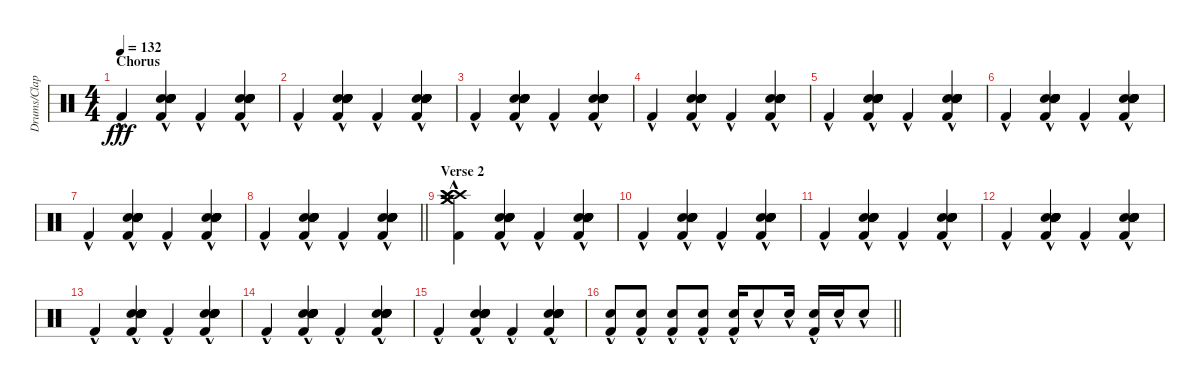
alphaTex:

\track ("Drums/Claps" "Drums/Clap") {instrument percussion}
\staff {score}
\articulation defaults
\ts (4 4)
\section ("" "Chorus")
\tempo 132
\clef neutral
\ks c "Kick (hit) 2"{hac}.4{dy fff}
("Hand Clap (hit)"{hac} "Hand Clap (hit)"{hac} "Hand Clap (hit)"{hac} "Snare (hit) 2"{hac} "Hand Clap (hit)"{hac} "Kick (hit) 2"{hac}).4 "Kick (hit) 2"{hac}.4 ("Hand Clap (hit)"{hac} "Hand Clap (hit)"{hac} "Hand Clap (hit)"{hac} "Snare (hit) 2"{hac} "Hand Clap (hit)"{hac} "Kick (hit) 2"{hac}).4 |
"Kick (hit) 2"{hac}.4 ("Hand Clap (hit)"{hac} "Hand Clap (hit)"{hac} "Hand Clap (hit)"{hac} "Snare (hit) 2"{hac} "Hand Clap (hit)"{hac} "Kick (hit) 2"{hac}).4 "Kick (hit) 2"{hac}.4 ("Hand Clap (hit)"{hac} "Hand Clap (hit)"{hac} "Hand Clap (hit)"{hac} "Snare (hit) 2"{hac} "Hand Clap (hit)"{hac} "Kick (hit) 2"{hac}).4 |
"Kick (hit) 2"{hac}.4 ("Hand Clap (hit)"{hac} "Hand Clap (hit)"{hac} "Hand Clap (hit)"{hac} "Snare (hit) 2"{hac} "Hand Clap (hit)"{hac} "Kick (hit) 2"{hac}).4 "Kick (hit) 2"{hac}.4 ("Hand Clap (hit)"{hac} "Hand Clap (hit)"{hac} "Hand Clap (hit)"{hac} "Snare (hit) 2"{hac} "Hand Clap (hit)"{hac} "Kick (hit) 2"{hac}).4 |
"Kick (hit) 2"{hac}.4 ("Hand Clap (hit)"{hac} "Hand Clap (hit)"{hac} "Hand Clap (hit)"{hac} "Snare (hit) 2"{hac} "Hand Clap (hit)"{hac} "Kick (hit) 2"{hac}).4 "Kick (hit) 2"{hac}.4 ("Hand Clap (hit)"{hac} "Hand Clap (hit)"{hac} "Hand Clap (hit)"{hac} "Snare (hit) 2"{hac} "Hand Clap (hit)"{hac} "Kick (hit) 2"{hac}).4 |
"Kick (hit) 2"{hac}.4 ("Hand Clap (hit)"{hac} "Hand Clap (hit)"{hac} "Hand Clap (hit)"{hac} "Snare (hit) 2"{hac} "Hand Clap (hit)"{hac} "Kick (hit) 2"{hac}).4 "Kick (hit) 2"{hac}.4 ("Hand Clap (hit)"{hac} "Hand Clap (hit)"{hac} "Hand Clap (hit)"{hac} "Snare (hit) 2"{hac} "Hand Clap (hit)"{hac} "Kick (hit) 2"{hac}).4 |
"Kick (hit) 2"{hac}.4 ("Hand Clap (hit)"{hac} "Hand Clap (hit)"{hac} "Hand Clap (hit)"{hac} "Snare (hit) 2"{hac} "Hand Clap (hit)"{hac} "Kick (hit) 2"{hac}).4 "Kick (hit) 2"{hac}.4 ("Hand Clap (hit)"{hac} "Hand Clap (hit)"{hac} "Hand Clap (hit)"{hac} "Snare (hit) 2"{hac} "Hand Clap (hit)"{hac} "Kick (hit) 2"{hac}).4 |
"Kick (hit) 2"{hac}.4 ("Hand Clap (hit)"{hac} "Hand Clap (hit)"{hac} "Hand Clap (hit)"{hac} "Snare (hit) 2"{hac} "Hand Clap (hit)"{hac} "Kick (hit) 2"{hac}).4 "Kick (hit) 2"{hac}.4 ("Hand Clap (hit)"{hac} "Hand Clap (hit)"{hac} "Hand Clap (hit)"{hac} "Snare (hit) 2"{hac} "Hand Clap (hit)"{hac} "Kick (hit) 2"{hac}).4 |
\barLineRight lightlight "Kick (hit) 2"{hac}.4
("Hand Clap (hit)"{hac} "Hand Clap (hit)"{hac} "Hand Clap (hit)"{hac} "Snare (hit) 2"{hac} "Hand Clap (hit)"{hac} "Kick (hit) 2"{hac}).4 "Kick (hit) 2"{hac}.4 ("Hand Clap (hit)"{hac} "Hand Clap (hit)"{hac} "Hand Clap (hit)"{hac} "Snare (hit) 2"{hac} "Hand Clap (hit)"{hac} "Kick (hit) 2"{hac}).4 |
\section ("" "Verse 2")
("Crash high (hit)"{hac} "Crash high (hit)"{hac} "Crash high (hit)"{hac} "Crash medium (hit)"{hac} "Crash medium (hit)"{hac} "Kick (hit) 2"{hac}).4 ("Hand Clap (hit)"{hac} "Hand Clap (hit)"{hac} "Hand Clap (hit)"{hac} "Snare (hit) 2"{hac} "Hand Clap (hit)"{hac} "Kick (hit) 2"{hac}).4 "Kick (hit) 2"{hac}.4 ("Hand Clap (hit)"{hac} "Hand Clap (hit)"{hac} "Hand Clap (hit)"{hac} "Snare (hit) 2"{hac} "Hand Clap (hit)"{hac} "Kick (hit) 2"{hac}).4 |
"Kick (hit) 2"{hac}.4 ("Hand Clap (hit)"{hac} "Hand Clap (hit)"{hac} "Hand Clap (hit)"{hac} "Snare (hit) 2"{hac} "Hand Clap (hit)"{hac} "Kick (hit) 2"{hac}).4 "Kick (hit) 2"{hac}.4 ("Hand Clap (hit)"{hac} "Hand Clap (hit)"{hac} "Hand Clap (hit)"{hac} "Snare (hit) 2"{hac} "Hand Clap (hit)"{hac} "Kick (hit) 2"{hac}).4 |
"Kick (hit) 2"{hac}.4 ("Hand Clap (hit)"{hac} "Hand Clap (hit)"{hac} "Hand Clap (hit)"{hac} "Snare (hit) 2"{hac} "Hand Clap (hit)"{hac} "Kick (hit) 2"{hac}).4 "Kick (hit) 2"{hac}.4 ("Hand Clap (hit)"{hac} "Hand Clap (hit)"{hac} "Hand Clap (hit)"{hac} "Snare (hit) 2"{hac} "Hand Clap (hit)"{hac} "Kick (hit) 2"{hac}).4 |
"Kick (hit) 2"{hac}.4 ("Hand Clap (hit)"{hac} "Hand Clap (hit)"{hac} "Hand Clap (hit)"{hac} "Snare (hit) 2"{hac} "Hand Clap (hit)"{hac} "Kick (hit) 2"{hac}).4 "Kick (hit) 2"{hac}.4 ("Hand Clap (hit)"{hac} "Hand Clap (hit)"{hac} "Hand Clap (hit)"{hac} "Snare (hit) 2"{hac} "Hand Clap (hit)"{hac} "Kick (hit) 2"{hac}).4 |
"Kick (hit) 2"{hac}.4 ("Hand Clap (hit)"{hac} "Hand Clap (hit)"{hac} "Hand Clap (hit)"{hac} "Snare (hit) 2"{hac} "Hand Clap (hit)"{hac} "Kick (hit) 2"{hac}).4 "Kick (hit) 2"{hac}.4 ("Hand Clap (hit)"{hac} "Hand Clap (hit)"{hac} "Hand Clap (hit)"{hac} "Snare (hit) 2"{hac} "Hand Clap (hit)"{hac} "Kick (hit) 2"{hac}).4 |
"Kick (hit) 2"{hac}.4 ("Hand Clap (hit)"{hac} "Hand Clap (hit)"{hac} "Hand Clap (hit)"{hac} "Snare (hit) 2"{hac} "Hand Clap (hit)"{hac} "Kick (hit) 2"{hac}).4 "Kick (hit) 2"{hac}.4 ("Hand Clap (hit)"{hac} "Hand Clap (hit)"{hac} "Hand Clap (hit)"{hac} "Snare (hit) 2"{hac} "Hand Clap (hit)"{hac} "Kick (hit) 2"{hac}).4 |
"Kick (hit) 2"{hac}.4 ("Hand Clap (hit)"{hac} "Hand Clap (hit)"{hac} "Hand Clap (hit)"{hac} "Snare (hit) 2"{hac} "Hand Clap (hit)"{hac} "Kick (hit) 2"{hac}).4 "Kick (hit) 2"{hac}.4 ("Hand Clap (hit)"{hac} "Hand Clap (hit)"{hac} "Hand Clap (hit)"{hac} "Snare (hit) 2"{hac} "Hand Clap (hit)"{hac} "Kick (hit) 2"{hac}).4 |
\barLineRight lightlight
("Snare (hit) 2"{hac} "Kick (hit) 2").8 ("Snare (hit) 2"{hac} "Kick (hit) 2").8 ("Snare (hit) 2"{hac} "Kick (hit) 2").8 ("Snare (hit) 2"{hac} "Kick (hit) 2").8 ("Snare (hit) 2"{hac} "Kick (hit) 2").16 "Snare (hit) 2"{hac}.8 "Snare (hit) 2"{hac}.16 ("Snare (hit) 2"{hac} "Kick (hit) 2").16 "Snare (hit) 2"{hac}.16 "Snare (hit) 2"{hac}.8
